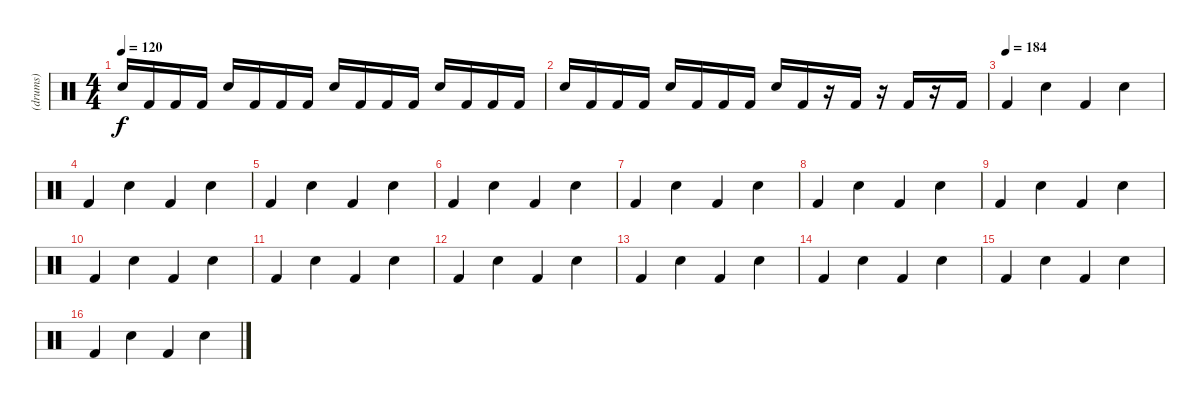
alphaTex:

\track ("(drums)" "(drums)") {instrument percussion}
\staff {score}
\articulation defaults
\ts (4 4)
\tempo 120
\clef neutral
\ks c "Electric Snare (hit)".16{dy f} "Kick (hit) 2".16 "Kick (hit) 2".16 "Kick (hit) 2".16 "Electric Snare (hit)".16 "Kick (hit) 2".16 "Kick (hit) 2".16 "Kick (hit) 2".16 "Electric Snare (hit)".16 "Kick (hit) 2".16 "Kick (hit) 2".16 "Kick (hit) 2".16 "Electric Snare (hit)".16 "Kick (hit) 2".16 "Kick (hit) 2".16 "Kick (hit) 2".16
|
"Electric Snare (hit)".16 "Kick (hit) 2".16 "Kick (hit) 2".16 "Kick (hit) 2".16 "Electric Snare (hit)".16 "Kick (hit) 2".16 "Kick (hit) 2".16 "Kick (hit) 2".16 "Electric Snare (hit)".16 "Kick (hit) 2".16 r.16 "Kick (hit) 2".16 r.16 "Kick (hit) 2".16 r.16 "Kick (hit) 2".16 |
\tempo (184)
"Kick (hit) 2".4 "Electric Snare (hit)".4 "Kick (hit) 2".4 "Electric Snare (hit)".4 |
"Kick (hit) 2".4 "Electric Snare (hit)".4 "Kick (hit) 2".4 "Electric Snare (hit)".4 |
"Kick (hit) 2".4 "Electric Snare (hit)".4 "Kick (hit) 2".4 "Electric Snare (hit)".4 |
"Kick (hit) 2".4 "Electric Snare (hit)".4 "Kick (hit) 2".4 "Electric Snare (hit)".4 |
"Kick (hit) 2".4 "Electric Snare (hit)".4 "Kick (hit) 2".4 "Electric Snare (hit)".4 |
"Kick (hit) 2".4 "Electric Snare (hit)".4 "Kick (hit) 2".4 "Electric Snare (hit)".4 |
"Kick (hit) 2".4 "Electric Snare (hit)".4 "Kick (hit) 2".4 "Electric Snare (hit)".4 |
"Kick (hit) 2".4 "Electric Snare (hit)".4 "Kick (hit) 2".4 "Electric Snare (hit)".4 |
"Kick (hit) 2".4 "Electric Snare (hit)".4 "Kick (hit) 2".4 "Electric Snare (hit)".4 |
"Kick (hit) 2".4 "Electric Snare (hit)".4 "Kick (hit) 2".4 "Electric Snare (hit)".4 |
"Kick (hit) 2".4 "Electric Snare (hit)".4 "Kick (hit) 2".4 "Electric Snare (hit)".4 |
"Kick (hit) 2".4 "Electric Snare (hit)".4 "Kick (hit) 2".4 "Electric Snare (hit)".4 |
"Kick (hit) 2".4 "Electric Snare (hit)".4 "Kick (hit) 2".4 "Electric Snare (hit)".4 |
"Kick (hit) 2".4 "Electric Snare (hit)".4 "Kick (hit) 2".4 "Electric Snare (hit)".4
